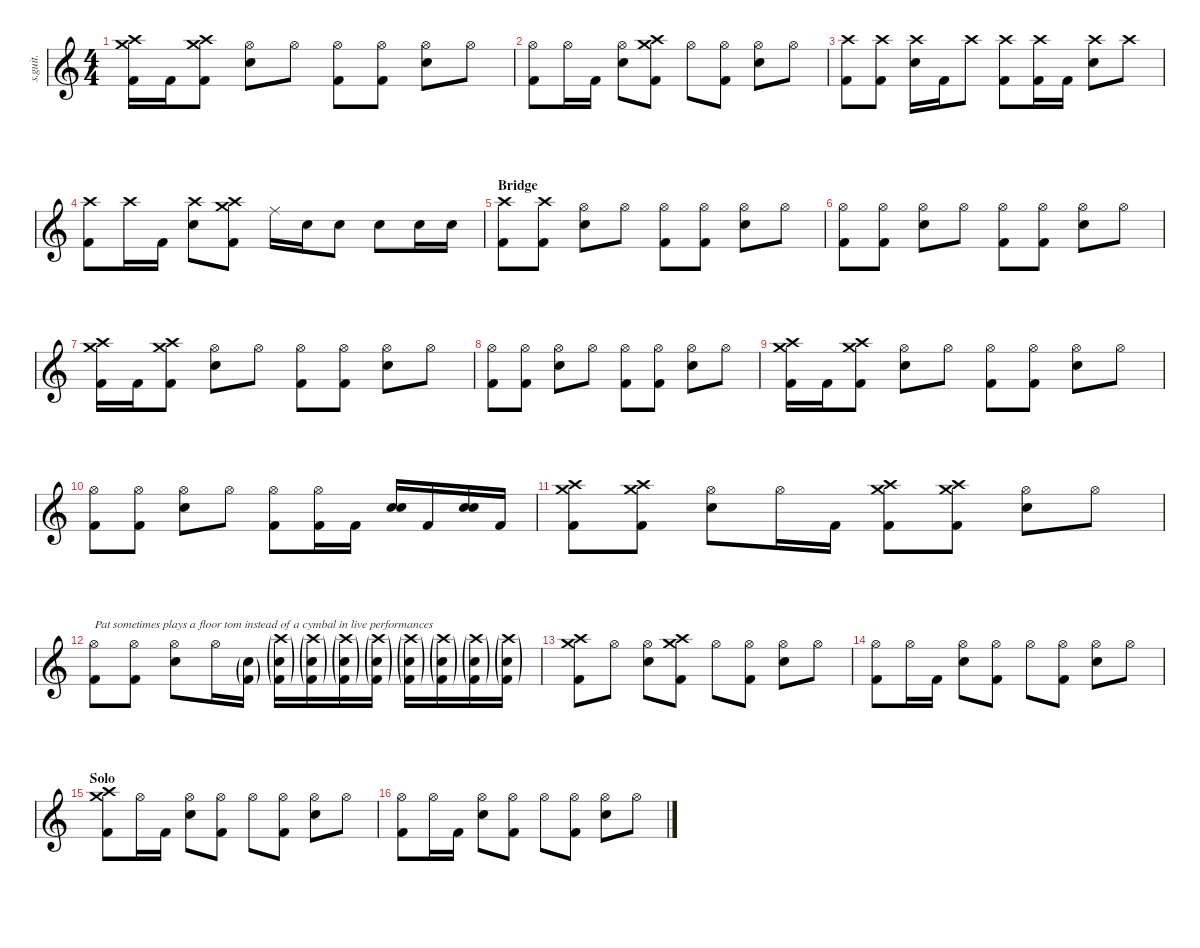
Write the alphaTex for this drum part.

\defaultSystemsLayout 4
\hideDynamics
\bracketExtendMode nobrackets
\track ("Drums (Pat Wilson)" "s.guit.") {instrument percussion}
\staff {score}
\articulation defaults
\ts (4 4)
\tempo (76 hide)
\clef g2
\ks c
("Crash high (hit)" "Crash medium (hit)" "Kick (hit) 2").16{lyrics (0 "") lyrics (1 "") lyrics (2 "") lyrics (3 "") lyrics (4 "") lyrics (5 "") lyrics (6 "") lyrics (7 "") lyrics (8 "") lyrics (9 "") dy f} "Kick (hit) 2".16{lyrics (0 "") lyrics (1 "") lyrics (2 "") lyrics (3 "") lyrics (4 "") lyrics (5 "") lyrics (6 "") lyrics (7 "") lyrics (8 "") lyrics (9 "")} ("Crash high (hit)" "Crash medium (hit)" "Kick (hit) 2").8{lyrics (0 "") lyrics (1 "") lyrics (2 "") lyrics (3 "") lyrics (4 "") lyrics (5 "") lyrics (6 "") lyrics (7 "") lyrics (8 "") lyrics (9 "")} ("Hi-Hat (open)" "Snare (hit) 2").8{lyrics (0 "") lyrics (1 "") lyrics (2 "") lyrics (3 "") lyrics (4 "") lyrics (5 "") lyrics (6 "") lyrics (7 "") lyrics (8 "") lyrics (9 "")} "Hi-Hat (open)".8{lyrics (0 "") lyrics (1 "") lyrics (2 "") lyrics (3 "") lyrics (4 "") lyrics (5 "") lyrics (6 "") lyrics (7 "") lyrics (8 "") lyrics (9 "")} ("Hi-Hat (open)" "Kick (hit) 2").8{lyrics (0 "") lyrics (1 "") lyrics (2 "") lyrics (3 "") lyrics (4 "") lyrics (5 "") lyrics (6 "") lyrics (7 "") lyrics (8 "") lyrics (9 "")} ("Hi-Hat (open)" "Kick (hit) 2").8{lyrics (0 "") lyrics (1 "") lyrics (2 "") lyrics (3 "") lyrics (4 "") lyrics (5 "") lyrics (6 "") lyrics (7 "") lyrics (8 "") lyrics (9 "")} ("Hi-Hat (open)" "Snare (hit) 2").8{lyrics (0 "") lyrics (1 "") lyrics (2 "") lyrics (3 "") lyrics (4 "") lyrics (5 "") lyrics (6 "") lyrics (7 "") lyrics (8 "") lyrics (9 "")} "Hi-Hat (open)".8{lyrics (0 "") lyrics (1 "") lyrics (2 "") lyrics (3 "") lyrics (4 "") lyrics (5 "") lyrics (6 "") lyrics (7 "") lyrics (8 "") lyrics (9 "")} |
("Hi-Hat (open)" "Kick (hit) 2").8{lyrics (0 "") lyrics (1 "") lyrics (2 "") lyrics (3 "") lyrics (4 "") lyrics (5 "") lyrics (6 "") lyrics (7 "") lyrics (8 "") lyrics (9 "")} "Hi-Hat (open)".16{lyrics (0 "") lyrics (1 "") lyrics (2 "") lyrics (3 "") lyrics (4 "") lyrics (5 "") lyrics (6 "") lyrics (7 "") lyrics (8 "") lyrics (9 "")} "Kick (hit) 2".16{lyrics (0 "") lyrics (1 "") lyrics (2 "") lyrics (3 "") lyrics (4 "") lyrics (5 "") lyrics (6 "") lyrics (7 "") lyrics (8 "") lyrics (9 "")} ("Hi-Hat (open)" "Snare (hit) 2").8{lyrics (0 "") lyrics (1 "") lyrics (2 "") lyrics (3 "") lyrics (4 "") lyrics (5 "") lyrics (6 "") lyrics (7 "") lyrics (8 "") lyrics (9 "")} ("Crash high (hit)" "Crash medium (hit)" "Kick (hit) 2").8{lyrics (0 "") lyrics (1 "") lyrics (2 "") lyrics (3 "") lyrics (4 "") lyrics (5 "") lyrics (6 "") lyrics (7 "") lyrics (8 "") lyrics (9 "")} "Hi-Hat (open)".8{lyrics (0 "") lyrics (1 "") lyrics (2 "") lyrics (3 "") lyrics (4 "") lyrics (5 "") lyrics (6 "") lyrics (7 "") lyrics (8 "") lyrics (9 "")} ("Hi-Hat (open)" "Kick (hit) 2").8{lyrics (0 "") lyrics (1 "") lyrics (2 "") lyrics (3 "") lyrics (4 "") lyrics (5 "") lyrics (6 "") lyrics (7 "") lyrics (8 "") lyrics (9 "")} ("Hi-Hat (open)" "Snare (hit) 2").8{lyrics (0 "") lyrics (1 "") lyrics (2 "") lyrics (3 "") lyrics (4 "") lyrics (5 "") lyrics (6 "") lyrics (7 "") lyrics (8 "") lyrics (9 "")} "Hi-Hat (open)".8{lyrics (0 "") lyrics (1 "") lyrics (2 "") lyrics (3 "") lyrics (4 "") lyrics (5 "") lyrics (6 "") lyrics (7 "") lyrics (8 "") lyrics (9 "")} |
("Crash high (hit)" "Kick (hit) 2").8{lyrics (0 "") lyrics (1 "") lyrics (2 "") lyrics (3 "") lyrics (4 "") lyrics (5 "") lyrics (6 "") lyrics (7 "") lyrics (8 "") lyrics (9 "")} ("Crash high (hit)" "Kick (hit) 2").8{lyrics (0 "") lyrics (1 "") lyrics (2 "") lyrics (3 "") lyrics (4 "") lyrics (5 "") lyrics (6 "") lyrics (7 "") lyrics (8 "") lyrics (9 "")} ("Crash high (hit)" "Snare (hit) 2").16{lyrics (0 "") lyrics (1 "") lyrics (2 "") lyrics (3 "") lyrics (4 "") lyrics (5 "") lyrics (6 "") lyrics (7 "") lyrics (8 "") lyrics (9 "")} "Kick (hit) 2".16{lyrics (0 "") lyrics (1 "") lyrics (2 "") lyrics (3 "") lyrics (4 "") lyrics (5 "") lyrics (6 "") lyrics (7 "") lyrics (8 "") lyrics (9 "")} "Crash high (hit)".8{lyrics (0 "") lyrics (1 "") lyrics (2 "") lyrics (3 "") lyrics (4 "") lyrics (5 "") lyrics (6 "") lyrics (7 "") lyrics (8 "") lyrics (9 "")} ("Crash high (hit)" "Kick (hit) 2").8{lyrics (0 "") lyrics (1 "") lyrics (2 "") lyrics (3 "") lyrics (4 "") lyrics (5 "") lyrics (6 "") lyrics (7 "") lyrics (8 "") lyrics (9 "")} ("Crash high (hit)" "Kick (hit) 2").16{lyrics (0 "") lyrics (1 "") lyrics (2 "") lyrics (3 "") lyrics (4 "") lyrics (5 "") lyrics (6 "") lyrics (7 "") lyrics (8 "") lyrics (9 "")} "Kick (hit) 2".16{lyrics (0 "") lyrics (1 "") lyrics (2 "") lyrics (3 "") lyrics (4 "") lyrics (5 "") lyrics (6 "") lyrics (7 "") lyrics (8 "") lyrics (9 "")} ("Crash high (hit)" "Snare (hit) 2").8{lyrics (0 "") lyrics (1 "") lyrics (2 "") lyrics (3 "") lyrics (4 "") lyrics (5 "") lyrics (6 "") lyrics (7 "") lyrics (8 "") lyrics (9 "")} "Crash high (hit)".8{lyrics (0 "") lyrics (1 "") lyrics (2 "") lyrics (3 "") lyrics (4 "") lyrics (5 "") lyrics (6 "") lyrics (7 "") lyrics (8 "") lyrics (9 "")} |
("Crash high (hit)" "Kick (hit) 2").8{lyrics (0 "") lyrics (1 "") lyrics (2 "") lyrics (3 "") lyrics (4 "") lyrics (5 "") lyrics (6 "") lyrics (7 "") lyrics (8 "") lyrics (9 "")} "Crash high (hit)".16{lyrics (0 "") lyrics (1 "") lyrics (2 "") lyrics (3 "") lyrics (4 "") lyrics (5 "") lyrics (6 "") lyrics (7 "") lyrics (8 "") lyrics (9 "")} "Kick (hit) 2".16{lyrics (0 "") lyrics (1 "") lyrics (2 "") lyrics (3 "") lyrics (4 "") lyrics (5 "") lyrics (6 "") lyrics (7 "") lyrics (8 "") lyrics (9 "")} ("Crash high (hit)" "Snare (hit) 2").8{lyrics (0 "") lyrics (1 "") lyrics (2 "") lyrics (3 "") lyrics (4 "") lyrics (5 "") lyrics (6 "") lyrics (7 "") lyrics (8 "") lyrics (9 "")} ("Crash high (hit)" "Crash medium (hit)" "Kick (hit) 2").8{lyrics (0 "") lyrics (1 "") lyrics (2 "") lyrics (3 "") lyrics (4 "") lyrics (5 "") lyrics (6 "") lyrics (7 "") lyrics (8 "") lyrics (9 "")} "Ride (middle)".16{lyrics (0 "") lyrics (1 "") lyrics (2 "") lyrics (3 "") lyrics (4 "") lyrics (5 "") lyrics (6 "") lyrics (7 "") lyrics (8 "") lyrics (9 "")} "Snare (hit) 2".16{lyrics (0 "") lyrics (1 "") lyrics (2 "") lyrics (3 "") lyrics (4 "") lyrics (5 "") lyrics (6 "") lyrics (7 "") lyrics (8 "") lyrics (9 "")} "Snare (hit) 2".8{lyrics (0 "") lyrics (1 "") lyrics (2 "") lyrics (3 "") lyrics (4 "") lyrics (5 "") lyrics (6 "") lyrics (7 "") lyrics (8 "") lyrics (9 "")} "Snare (hit) 2".8{lyrics (0 "") lyrics (1 "") lyrics (2 "") lyrics (3 "") lyrics (4 "") lyrics (5 "") lyrics (6 "") lyrics (7 "") lyrics (8 "") lyrics (9 "")} "Snare (hit) 2".16{lyrics (0 "") lyrics (1 "") lyrics (2 "") lyrics (3 "") lyrics (4 "") lyrics (5 "") lyrics (6 "") lyrics (7 "") lyrics (8 "") lyrics (9 "")} "Snare (hit) 2".16{lyrics (0 "") lyrics (1 "") lyrics (2 "") lyrics (3 "") lyrics (4 "") lyrics (5 "") lyrics (6 "") lyrics (7 "") lyrics (8 "") lyrics (9 "")} |
\section ("" "Bridge")
("Crash high (hit)" "Kick (hit) 2").8{lyrics (0 "") lyrics (1 "") lyrics (2 "") lyrics (3 "") lyrics (4 "") lyrics (5 "") lyrics (6 "") lyrics (7 "") lyrics (8 "") lyrics (9 "")} ("Crash high (hit)" "Kick (hit) 2").8{lyrics (0 "") lyrics (1 "") lyrics (2 "") lyrics (3 "") lyrics (4 "") lyrics (5 "") lyrics (6 "") lyrics (7 "") lyrics (8 "") lyrics (9 "")} ("Hi-Hat (open)" "Snare (hit) 2").8{lyrics (0 "") lyrics (1 "") lyrics (2 "") lyrics (3 "") lyrics (4 "") lyrics (5 "") lyrics (6 "") lyrics (7 "") lyrics (8 "") lyrics (9 "")} "Hi-Hat (open)".8{lyrics (0 "") lyrics (1 "") lyrics (2 "") lyrics (3 "") lyrics (4 "") lyrics (5 "") lyrics (6 "") lyrics (7 "") lyrics (8 "") lyrics (9 "")} ("Hi-Hat (open)" "Kick (hit) 2").8{lyrics (0 "") lyrics (1 "") lyrics (2 "") lyrics (3 "") lyrics (4 "") lyrics (5 "") lyrics (6 "") lyrics (7 "") lyrics (8 "") lyrics (9 "")} ("Hi-Hat (open)" "Kick (hit) 2").8{lyrics (0 "") lyrics (1 "") lyrics (2 "") lyrics (3 "") lyrics (4 "") lyrics (5 "") lyrics (6 "") lyrics (7 "") lyrics (8 "") lyrics (9 "")} ("Hi-Hat (open)" "Snare (hit) 2").8{lyrics (0 "") lyrics (1 "") lyrics (2 "") lyrics (3 "") lyrics (4 "") lyrics (5 "") lyrics (6 "") lyrics (7 "") lyrics (8 "") lyrics (9 "")} "Hi-Hat (open)".8{lyrics (0 "") lyrics (1 "") lyrics (2 "") lyrics (3 "") lyrics (4 "") lyrics (5 "") lyrics (6 "") lyrics (7 "") lyrics (8 "") lyrics (9 "")} |
("Hi-Hat (open)" "Kick (hit) 2").8{lyrics (0 "") lyrics (1 "") lyrics (2 "") lyrics (3 "") lyrics (4 "") lyrics (5 "") lyrics (6 "") lyrics (7 "") lyrics (8 "") lyrics (9 "")} ("Hi-Hat (open)" "Kick (hit) 2").8{lyrics (0 "") lyrics (1 "") lyrics (2 "") lyrics (3 "") lyrics (4 "") lyrics (5 "") lyrics (6 "") lyrics (7 "") lyrics (8 "") lyrics (9 "")} ("Hi-Hat (open)" "Snare (hit) 2").8{lyrics (0 "") lyrics (1 "") lyrics (2 "") lyrics (3 "") lyrics (4 "") lyrics (5 "") lyrics (6 "") lyrics (7 "") lyrics (8 "") lyrics (9 "")} "Hi-Hat (open)".8{lyrics (0 "") lyrics (1 "") lyrics (2 "") lyrics (3 "") lyrics (4 "") lyrics (5 "") lyrics (6 "") lyrics (7 "") lyrics (8 "") lyrics (9 "")} ("Hi-Hat (open)" "Kick (hit) 2").8{lyrics (0 "") lyrics (1 "") lyrics (2 "") lyrics (3 "") lyrics (4 "") lyrics (5 "") lyrics (6 "") lyrics (7 "") lyrics (8 "") lyrics (9 "")} ("Hi-Hat (open)" "Kick (hit) 2").8{lyrics (0 "") lyrics (1 "") lyrics (2 "") lyrics (3 "") lyrics (4 "") lyrics (5 "") lyrics (6 "") lyrics (7 "") lyrics (8 "") lyrics (9 "")} ("Hi-Hat (open)" "Snare (hit) 2").8{lyrics (0 "") lyrics (1 "") lyrics (2 "") lyrics (3 "") lyrics (4 "") lyrics (5 "") lyrics (6 "") lyrics (7 "") lyrics (8 "") lyrics (9 "")} "Hi-Hat (open)".8{lyrics (0 "") lyrics (1 "") lyrics (2 "") lyrics (3 "") lyrics (4 "") lyrics (5 "") lyrics (6 "") lyrics (7 "") lyrics (8 "") lyrics (9 "")} |
("Crash high (hit)" "Crash medium (hit)" "Kick (hit) 2").16{lyrics (0 "") lyrics (1 "") lyrics (2 "") lyrics (3 "") lyrics (4 "") lyrics (5 "") lyrics (6 "") lyrics (7 "") lyrics (8 "") lyrics (9 "")} "Kick (hit) 2".16{lyrics (0 "") lyrics (1 "") lyrics (2 "") lyrics (3 "") lyrics (4 "") lyrics (5 "") lyrics (6 "") lyrics (7 "") lyrics (8 "") lyrics (9 "")} ("Crash high (hit)" "Crash medium (hit)" "Kick (hit) 2").8{lyrics (0 "") lyrics (1 "") lyrics (2 "") lyrics (3 "") lyrics (4 "") lyrics (5 "") lyrics (6 "") lyrics (7 "") lyrics (8 "") lyrics (9 "")} ("Hi-Hat (open)" "Snare (hit) 2").8{lyrics (0 "") lyrics (1 "") lyrics (2 "") lyrics (3 "") lyrics (4 "") lyrics (5 "") lyrics (6 "") lyrics (7 "") lyrics (8 "") lyrics (9 "")} "Hi-Hat (open)".8{lyrics (0 "") lyrics (1 "") lyrics (2 "") lyrics (3 "") lyrics (4 "") lyrics (5 "") lyrics (6 "") lyrics (7 "") lyrics (8 "") lyrics (9 "")} ("Hi-Hat (open)" "Kick (hit) 2").8{lyrics (0 "") lyrics (1 "") lyrics (2 "") lyrics (3 "") lyrics (4 "") lyrics (5 "") lyrics (6 "") lyrics (7 "") lyrics (8 "") lyrics (9 "")} ("Hi-Hat (open)" "Kick (hit) 2").8{lyrics (0 "") lyrics (1 "") lyrics (2 "") lyrics (3 "") lyrics (4 "") lyrics (5 "") lyrics (6 "") lyrics (7 "") lyrics (8 "") lyrics (9 "")} ("Hi-Hat (open)" "Snare (hit) 2").8{lyrics (0 "") lyrics (1 "") lyrics (2 "") lyrics (3 "") lyrics (4 "") lyrics (5 "") lyrics (6 "") lyrics (7 "") lyrics (8 "") lyrics (9 "")} "Hi-Hat (open)".8{lyrics (0 "") lyrics (1 "") lyrics (2 "") lyrics (3 "") lyrics (4 "") lyrics (5 "") lyrics (6 "") lyrics (7 "") lyrics (8 "") lyrics (9 "")} |
("Hi-Hat (open)" "Kick (hit) 2").8{lyrics (0 "") lyrics (1 "") lyrics (2 "") lyrics (3 "") lyrics (4 "") lyrics (5 "") lyrics (6 "") lyrics (7 "") lyrics (8 "") lyrics (9 "")} ("Hi-Hat (open)" "Kick (hit) 2").8{lyrics (0 "") lyrics (1 "") lyrics (2 "") lyrics (3 "") lyrics (4 "") lyrics (5 "") lyrics (6 "") lyrics (7 "") lyrics (8 "") lyrics (9 "")} ("Hi-Hat (open)" "Snare (hit) 2").8{lyrics (0 "") lyrics (1 "") lyrics (2 "") lyrics (3 "") lyrics (4 "") lyrics (5 "") lyrics (6 "") lyrics (7 "") lyrics (8 "") lyrics (9 "")} "Hi-Hat (open)".8{lyrics (0 "") lyrics (1 "") lyrics (2 "") lyrics (3 "") lyrics (4 "") lyrics (5 "") lyrics (6 "") lyrics (7 "") lyrics (8 "") lyrics (9 "")} ("Hi-Hat (open)" "Kick (hit) 2").8{lyrics (0 "") lyrics (1 "") lyrics (2 "") lyrics (3 "") lyrics (4 "") lyrics (5 "") lyrics (6 "") lyrics (7 "") lyrics (8 "") lyrics (9 "")} ("Hi-Hat (open)" "Kick (hit) 2").8{lyrics (0 "") lyrics (1 "") lyrics (2 "") lyrics (3 "") lyrics (4 "") lyrics (5 "") lyrics (6 "") lyrics (7 "") lyrics (8 "") lyrics (9 "")} ("Hi-Hat (open)" "Snare (hit) 2").8{lyrics (0 "") lyrics (1 "") lyrics (2 "") lyrics (3 "") lyrics (4 "") lyrics (5 "") lyrics (6 "") lyrics (7 "") lyrics (8 "") lyrics (9 "")} "Hi-Hat (open)".8{lyrics (0 "") lyrics (1 "") lyrics (2 "") lyrics (3 "") lyrics (4 "") lyrics (5 "") lyrics (6 "") lyrics (7 "") lyrics (8 "") lyrics (9 "")} |
("Crash high (hit)" "Crash medium (hit)" "Kick (hit) 2").16{lyrics (0 "") lyrics (1 "") lyrics (2 "") lyrics (3 "") lyrics (4 "") lyrics (5 "") lyrics (6 "") lyrics (7 "") lyrics (8 "") lyrics (9 "")} "Kick (hit) 2".16{lyrics (0 "") lyrics (1 "") lyrics (2 "") lyrics (3 "") lyrics (4 "") lyrics (5 "") lyrics (6 "") lyrics (7 "") lyrics (8 "") lyrics (9 "")} ("Crash high (hit)" "Crash medium (hit)" "Kick (hit) 2").8{lyrics (0 "") lyrics (1 "") lyrics (2 "") lyrics (3 "") lyrics (4 "") lyrics (5 "") lyrics (6 "") lyrics (7 "") lyrics (8 "") lyrics (9 "")} ("Hi-Hat (open)" "Snare (hit) 2").8{lyrics (0 "") lyrics (1 "") lyrics (2 "") lyrics (3 "") lyrics (4 "") lyrics (5 "") lyrics (6 "") lyrics (7 "") lyrics (8 "") lyrics (9 "")} "Hi-Hat (open)".8{lyrics (0 "") lyrics (1 "") lyrics (2 "") lyrics (3 "") lyrics (4 "") lyrics (5 "") lyrics (6 "") lyrics (7 "") lyrics (8 "") lyrics (9 "")} ("Hi-Hat (open)" "Kick (hit) 2").8{lyrics (0 "") lyrics (1 "") lyrics (2 "") lyrics (3 "") lyrics (4 "") lyrics (5 "") lyrics (6 "") lyrics (7 "") lyrics (8 "") lyrics (9 "")} ("Hi-Hat (open)" "Kick (hit) 2").8{lyrics (0 "") lyrics (1 "") lyrics (2 "") lyrics (3 "") lyrics (4 "") lyrics (5 "") lyrics (6 "") lyrics (7 "") lyrics (8 "") lyrics (9 "")} ("Hi-Hat (open)" "Snare (hit) 2").8{lyrics (0 "") lyrics (1 "") lyrics (2 "") lyrics (3 "") lyrics (4 "") lyrics (5 "") lyrics (6 "") lyrics (7 "") lyrics (8 "") lyrics (9 "")} "Hi-Hat (open)".8{lyrics (0 "") lyrics (1 "") lyrics (2 "") lyrics (3 "") lyrics (4 "") lyrics (5 "") lyrics (6 "") lyrics (7 "") lyrics (8 "") lyrics (9 "")} |
("Hi-Hat (open)" "Kick (hit) 2").8{lyrics (0 "") lyrics (1 "") lyrics (2 "") lyrics (3 "") lyrics (4 "") lyrics (5 "") lyrics (6 "") lyrics (7 "") lyrics (8 "") lyrics (9 "")} ("Hi-Hat (open)" "Kick (hit) 2").8{lyrics (0 "") lyrics (1 "") lyrics (2 "") lyrics (3 "") lyrics (4 "") lyrics (5 "") lyrics (6 "") lyrics (7 "") lyrics (8 "") lyrics (9 "")} ("Hi-Hat (open)" "Snare (hit) 2").8{lyrics (0 "") lyrics (1 "") lyrics (2 "") lyrics (3 "") lyrics (4 "") lyrics (5 "") lyrics (6 "") lyrics (7 "") lyrics (8 "") lyrics (9 "")} "Hi-Hat (open)".8{lyrics (0 "") lyrics (1 "") lyrics (2 "") lyrics (3 "") lyrics (4 "") lyrics (5 "") lyrics (6 "") lyrics (7 "") lyrics (8 "") lyrics (9 "")} ("Hi-Hat (open)" "Kick (hit) 2").8{lyrics (0 "") lyrics (1 "") lyrics (2 "") lyrics (3 "") lyrics (4 "") lyrics (5 "") lyrics (6 "") lyrics (7 "") lyrics (8 "") lyrics (9 "")} ("Hi-Hat (open)" "Kick (hit) 2").16{lyrics (0 "") lyrics (1 "") lyrics (2 "") lyrics (3 "") lyrics (4 "") lyrics (5 "") lyrics (6 "") lyrics (7 "") lyrics (8 "") lyrics (9 "")} "Kick (hit) 2".16{lyrics (0 "") lyrics (1 "") lyrics (2 "") lyrics (3 "") lyrics (4 "") lyrics (5 "") lyrics (6 "") lyrics (7 "") lyrics (8 "") lyrics (9 "")} ("Snare (hit) 2" "Snare (hit) 2").16{bd 30 lyrics (0 "") lyrics (1 "") lyrics (2 "") lyrics (3 "") lyrics (4 "") lyrics (5 "") lyrics (6 "") lyrics (7 "") lyrics (8 "") lyrics (9 "")} "Kick (hit) 2".16{lyrics (0 "") lyrics (1 "") lyrics (2 "") lyrics (3 "") lyrics (4 "") lyrics (5 "") lyrics (6 "") lyrics (7 "") lyrics (8 "") lyrics (9 "")} ("Snare (hit) 2" "Snare (hit) 2").16{bd 30 lyrics (0 "") lyrics (1 "") lyrics (2 "") lyrics (3 "") lyrics (4 "") lyrics (5 "") lyrics (6 "") lyrics (7 "") lyrics (8 "") lyrics (9 "")} "Kick (hit) 2".16{lyrics (0 "") lyrics (1 "") lyrics (2 "") lyrics (3 "") lyrics (4 "") lyrics (5 "") lyrics (6 "") lyrics (7 "") lyrics (8 "") lyrics (9 "")} |
("Crash high (hit)" "Crash medium (hit)" "Kick (hit) 2").8{lyrics (0 "") lyrics (1 "") lyrics (2 "") lyrics (3 "") lyrics (4 "") lyrics (5 "") lyrics (6 "") lyrics (7 "") lyrics (8 "") lyrics (9 "")} ("Crash high (hit)" "Crash medium (hit)" "Kick (hit) 2").8{lyrics (0 "") lyrics (1 "") lyrics (2 "") lyrics (3 "") lyrics (4 "") lyrics (5 "") lyrics (6 "") lyrics (7 "") lyrics (8 "") lyrics (9 "")} ("Hi-Hat (open)" "Snare (hit) 2").8{lyrics (0 "") lyrics (1 "") lyrics (2 "") lyrics (3 "") lyrics (4 "") lyrics (5 "") lyrics (6 "") lyrics (7 "") lyrics (8 "") lyrics (9 "")} "Hi-Hat (open)".16{lyrics (0 "") lyrics (1 "") lyrics (2 "") lyrics (3 "") lyrics (4 "") lyrics (5 "") lyrics (6 "") lyrics (7 "") lyrics (8 "") lyrics (9 "")} "Kick (hit) 2".16{lyrics (0 "") lyrics (1 "") lyrics (2 "") lyrics (3 "") lyrics (4 "") lyrics (5 "") lyrics (6 "") lyrics (7 "") lyrics (8 "") lyrics (9 "")} ("Crash high (hit)" "Crash medium (hit)" "Kick (hit) 2").8{lyrics (0 "") lyrics (1 "") lyrics (2 "") lyrics (3 "") lyrics (4 "") lyrics (5 "") lyrics (6 "") lyrics (7 "") lyrics (8 "") lyrics (9 "")} ("Crash high (hit)" "Crash medium (hit)" "Kick (hit) 2").8{lyrics (0 "") lyrics (1 "") lyrics (2 "") lyrics (3 "") lyrics (4 "") lyrics (5 "") lyrics (6 "") lyrics (7 "") lyrics (8 "") lyrics (9 "")} ("Hi-Hat (open)" "Snare (hit) 2").8{lyrics (0 "") lyrics (1 "") lyrics (2 "") lyrics (3 "") lyrics (4 "") lyrics (5 "") lyrics (6 "") lyrics (7 "") lyrics (8 "") lyrics (9 "")} "Hi-Hat (open)".8{lyrics (0 "") lyrics (1 "") lyrics (2 "") lyrics (3 "") lyrics (4 "") lyrics (5 "") lyrics (6 "") lyrics (7 "") lyrics (8 "") lyrics (9 "")} |
("Hi-Hat (open)" "Kick (hit) 2").8{txt "Pat sometimes plays a floor tom instead of a cymbal in live performances" lyrics (0 "") lyrics (1 "") lyrics (2 "") lyrics (3 "") lyrics (4 "") lyrics (5 "") lyrics (6 "") lyrics (7 "") lyrics (8 "") lyrics (9 "")} ("Hi-Hat (open)" "Kick (hit) 2").8{lyrics (0 "") lyrics (1 "") lyrics (2 "") lyrics (3 "") lyrics (4 "") lyrics (5 "") lyrics (6 "") lyrics (7 "") lyrics (8 "") lyrics (9 "")} ("Hi-Hat (open)" "Snare (hit) 2").8{lyrics (0 "") lyrics (1 "") lyrics (2 "") lyrics (3 "") lyrics (4 "") lyrics (5 "") lyrics (6 "") lyrics (7 "") lyrics (8 "") lyrics (9 "")} "Hi-Hat (open)".16{lyrics (0 "") lyrics (1 "") lyrics (2 "") lyrics (3 "") lyrics (4 "") lyrics (5 "") lyrics (6 "") lyrics (7 "") lyrics (8 "") lyrics (9 "")} ("Snare (hit) 2"{g} "Kick (hit) 2"{g}).16{lyrics (0 "") lyrics (1 "") lyrics (2 "") lyrics (3 "") lyrics (4 "") lyrics (5 "") lyrics (6 "") lyrics (7 "") lyrics (8 "") lyrics (9 "") dy pp} ("Crash high (hit)"{g} "Snare (hit) 2"{g} "Kick (hit) 2"{g}).16{lyrics (0 "") lyrics (1 "") lyrics (2 "") lyrics (3 "") lyrics (4 "") lyrics (5 "") lyrics (6 "") lyrics (7 "") lyrics (8 "") lyrics (9 "")} ("Crash high (hit)"{g} "Snare (hit) 2"{g} "Kick (hit) 2"{g}).16{lyrics (0 "") lyrics (1 "") lyrics (2 "") lyrics (3 "") lyrics (4 "") lyrics (5 "") lyrics (6 "") lyrics (7 "") lyrics (8 "") lyrics (9 "")} ("Crash high (hit)"{g} "Snare (hit) 2"{g} "Kick (hit) 2"{g}).16{lyrics (0 "") lyrics (1 "") lyrics (2 "") lyrics (3 "") lyrics (4 "") lyrics (5 "") lyrics (6 "") lyrics (7 "") lyrics (8 "") lyrics (9 "") dy p} ("Crash high (hit)"{g} "Snare (hit) 2"{g} "Kick (hit) 2"{g}).16{lyrics (0 "") lyrics (1 "") lyrics (2 "") lyrics (3 "") lyrics (4 "") lyrics (5 "") lyrics (6 "") lyrics (7 "") lyrics (8 "") lyrics (9 "")} ("Crash high (hit)"{g} "Snare (hit) 2"{g} "Kick (hit) 2"{g}).16{lyrics (0 "") lyrics (1 "") lyrics (2 "") lyrics (3 "") lyrics (4 "") lyrics (5 "") lyrics (6 "") lyrics (7 "") lyrics (8 "") lyrics (9 "")} ("Crash high (hit)"{g} "Snare (hit) 2"{g} "Kick (hit) 2"{g}).16{lyrics (0 "") lyrics (1 "") lyrics (2 "") lyrics (3 "") lyrics (4 "") lyrics (5 "") lyrics (6 "") lyrics (7 "") lyrics (8 "") lyrics (9 "") dy mp} ("Crash high (hit)"{g} "Snare (hit) 2"{g} "Kick (hit) 2"{g}).16{lyrics (0 "") lyrics (1 "") lyrics (2 "") lyrics (3 "") lyrics (4 "") lyrics (5 "") lyrics (6 "") lyrics (7 "") lyrics (8 "") lyrics (9 "")} ("Crash high (hit)"{g} "Snare (hit) 2"{g} "Kick (hit) 2"{g}).16{lyrics (0 "") lyrics (1 "") lyrics (2 "") lyrics (3 "") lyrics (4 "") lyrics (5 "") lyrics (6 "") lyrics (7 "") lyrics (8 "") lyrics (9 "")} |
("Crash high (hit)" "Crash medium (hit)" "Kick (hit) 2").8{lyrics (0 "") lyrics (1 "") lyrics (2 "") lyrics (3 "") lyrics (4 "") lyrics (5 "") lyrics (6 "") lyrics (7 "") lyrics (8 "") lyrics (9 "") dy f} "Hi-Hat (open)".8{lyrics (0 "") lyrics (1 "") lyrics (2 "") lyrics (3 "") lyrics (4 "") lyrics (5 "") lyrics (6 "") lyrics (7 "") lyrics (8 "") lyrics (9 "")} ("Hi-Hat (open)" "Snare (hit) 2").8{lyrics (0 "") lyrics (1 "") lyrics (2 "") lyrics (3 "") lyrics (4 "") lyrics (5 "") lyrics (6 "") lyrics (7 "") lyrics (8 "") lyrics (9 "")} ("Crash high (hit)" "Crash medium (hit)" "Kick (hit) 2").8{lyrics (0 "") lyrics (1 "") lyrics (2 "") lyrics (3 "") lyrics (4 "") lyrics (5 "") lyrics (6 "") lyrics (7 "") lyrics (8 "") lyrics (9 "")} "Hi-Hat (open)".8{lyrics (0 "") lyrics (1 "") lyrics (2 "") lyrics (3 "") lyrics (4 "") lyrics (5 "") lyrics (6 "") lyrics (7 "") lyrics (8 "") lyrics (9 "")} ("Hi-Hat (open)" "Kick (hit) 2").8{lyrics (0 "") lyrics (1 "") lyrics (2 "") lyrics (3 "") lyrics (4 "") lyrics (5 "") lyrics (6 "") lyrics (7 "") lyrics (8 "") lyrics (9 "")} ("Hi-Hat (open)" "Snare (hit) 2").8{lyrics (0 "") lyrics (1 "") lyrics (2 "") lyrics (3 "") lyrics (4 "") lyrics (5 "") lyrics (6 "") lyrics (7 "") lyrics (8 "") lyrics (9 "")} "Hi-Hat (open)".8{lyrics (0 "") lyrics (1 "") lyrics (2 "") lyrics (3 "") lyrics (4 "") lyrics (5 "") lyrics (6 "") lyrics (7 "") lyrics (8 "") lyrics (9 "")} |
("Hi-Hat (open)" "Kick (hit) 2").8{lyrics (0 "") lyrics (1 "") lyrics (2 "") lyrics (3 "") lyrics (4 "") lyrics (5 "") lyrics (6 "") lyrics (7 "") lyrics (8 "") lyrics (9 "")} "Hi-Hat (open)".16{lyrics (0 "") lyrics (1 "") lyrics (2 "") lyrics (3 "") lyrics (4 "") lyrics (5 "") lyrics (6 "") lyrics (7 "") lyrics (8 "") lyrics (9 "")} "Kick (hit) 2".16{lyrics (0 "") lyrics (1 "") lyrics (2 "") lyrics (3 "") lyrics (4 "") lyrics (5 "") lyrics (6 "") lyrics (7 "") lyrics (8 "") lyrics (9 "")} ("Hi-Hat (open)" "Snare (hit) 2").8{lyrics (0 "") lyrics (1 "") lyrics (2 "") lyrics (3 "") lyrics (4 "") lyrics (5 "") lyrics (6 "") lyrics (7 "") lyrics (8 "") lyrics (9 "")} ("Hi-Hat (open)" "Kick (hit) 2").8{lyrics (0 "") lyrics (1 "") lyrics (2 "") lyrics (3 "") lyrics (4 "") lyrics (5 "") lyrics (6 "") lyrics (7 "") lyrics (8 "") lyrics (9 "")} "Hi-Hat (open)".8{lyrics (0 "") lyrics (1 "") lyrics (2 "") lyrics (3 "") lyrics (4 "") lyrics (5 "") lyrics (6 "") lyrics (7 "") lyrics (8 "") lyrics (9 "")} ("Hi-Hat (open)" "Kick (hit) 2").8{lyrics (0 "") lyrics (1 "") lyrics (2 "") lyrics (3 "") lyrics (4 "") lyrics (5 "") lyrics (6 "") lyrics (7 "") lyrics (8 "") lyrics (9 "")} ("Hi-Hat (open)" "Snare (hit) 2").8{lyrics (0 "") lyrics (1 "") lyrics (2 "") lyrics (3 "") lyrics (4 "") lyrics (5 "") lyrics (6 "") lyrics (7 "") lyrics (8 "") lyrics (9 "")} "Hi-Hat (open)".8{lyrics (0 "") lyrics (1 "") lyrics (2 "") lyrics (3 "") lyrics (4 "") lyrics (5 "") lyrics (6 "") lyrics (7 "") lyrics (8 "") lyrics (9 "")} |
\section ("" "Solo")
("Crash high (hit)" "Crash medium (hit)" "Kick (hit) 2").8{lyrics (0 "") lyrics (1 "") lyrics (2 "") lyrics (3 "") lyrics (4 "") lyrics (5 "") lyrics (6 "") lyrics (7 "") lyrics (8 "") lyrics (9 "")} "Hi-Hat (open)".16{lyrics (0 "") lyrics (1 "") lyrics (2 "") lyrics (3 "") lyrics (4 "") lyrics (5 "") lyrics (6 "") lyrics (7 "") lyrics (8 "") lyrics (9 "")} "Kick (hit) 2".16{lyrics (0 "") lyrics (1 "") lyrics (2 "") lyrics (3 "") lyrics (4 "") lyrics (5 "") lyrics (6 "") lyrics (7 "") lyrics (8 "") lyrics (9 "")} ("Hi-Hat (open)" "Snare (hit) 2").8{lyrics (0 "") lyrics (1 "") lyrics (2 "") lyrics (3 "") lyrics (4 "") lyrics (5 "") lyrics (6 "") lyrics (7 "") lyrics (8 "") lyrics (9 "")} ("Hi-Hat (open)" "Kick (hit) 2").8{lyrics (0 "") lyrics (1 "") lyrics (2 "") lyrics (3 "") lyrics (4 "") lyrics (5 "") lyrics (6 "") lyrics (7 "") lyrics (8 "") lyrics (9 "")} "Hi-Hat (open)".8{lyrics (0 "") lyrics (1 "") lyrics (2 "") lyrics (3 "") lyrics (4 "") lyrics (5 "") lyrics (6 "") lyrics (7 "") lyrics (8 "") lyrics (9 "")} ("Hi-Hat (open)" "Kick (hit) 2").8{lyrics (0 "") lyrics (1 "") lyrics (2 "") lyrics (3 "") lyrics (4 "") lyrics (5 "") lyrics (6 "") lyrics (7 "") lyrics (8 "") lyrics (9 "")} ("Hi-Hat (open)" "Snare (hit) 2").8{lyrics (0 "") lyrics (1 "") lyrics (2 "") lyrics (3 "") lyrics (4 "") lyrics (5 "") lyrics (6 "") lyrics (7 "") lyrics (8 "") lyrics (9 "")} "Hi-Hat (open)".8{lyrics (0 "") lyrics (1 "") lyrics (2 "") lyrics (3 "") lyrics (4 "") lyrics (5 "") lyrics (6 "") lyrics (7 "") lyrics (8 "") lyrics (9 "")} |
("Hi-Hat (open)" "Kick (hit) 2").8{lyrics (0 "") lyrics (1 "") lyrics (2 "") lyrics (3 "") lyrics (4 "") lyrics (5 "") lyrics (6 "") lyrics (7 "") lyrics (8 "") lyrics (9 "")} "Hi-Hat (open)".16{lyrics (0 "") lyrics (1 "") lyrics (2 "") lyrics (3 "") lyrics (4 "") lyrics (5 "") lyrics (6 "") lyrics (7 "") lyrics (8 "") lyrics (9 "")} "Kick (hit) 2".16{lyrics (0 "") lyrics (1 "") lyrics (2 "") lyrics (3 "") lyrics (4 "") lyrics (5 "") lyrics (6 "") lyrics (7 "") lyrics (8 "") lyrics (9 "")} ("Hi-Hat (open)" "Snare (hit) 2").8{lyrics (0 "") lyrics (1 "") lyrics (2 "") lyrics (3 "") lyrics (4 "") lyrics (5 "") lyrics (6 "") lyrics (7 "") lyrics (8 "") lyrics (9 "")} ("Hi-Hat (open)" "Kick (hit) 2").8{lyrics (0 "") lyrics (1 "") lyrics (2 "") lyrics (3 "") lyrics (4 "") lyrics (5 "") lyrics (6 "") lyrics (7 "") lyrics (8 "") lyrics (9 "")} "Hi-Hat (open)".8{lyrics (0 "") lyrics (1 "") lyrics (2 "") lyrics (3 "") lyrics (4 "") lyrics (5 "") lyrics (6 "") lyrics (7 "") lyrics (8 "") lyrics (9 "")} ("Hi-Hat (open)" "Kick (hit) 2").8{lyrics (0 "") lyrics (1 "") lyrics (2 "") lyrics (3 "") lyrics (4 "") lyrics (5 "") lyrics (6 "") lyrics (7 "") lyrics (8 "") lyrics (9 "")} ("Hi-Hat (open)" "Snare (hit) 2").8{lyrics (0 "") lyrics (1 "") lyrics (2 "") lyrics (3 "") lyrics (4 "") lyrics (5 "") lyrics (6 "") lyrics (7 "") lyrics (8 "") lyrics (9 "")} "Hi-Hat (open)".8{lyrics (0 "") lyrics (1 "") lyrics (2 "") lyrics (3 "") lyrics (4 "") lyrics (5 "") lyrics (6 "") lyrics (7 "") lyrics (8 "") lyrics (9 "")}
